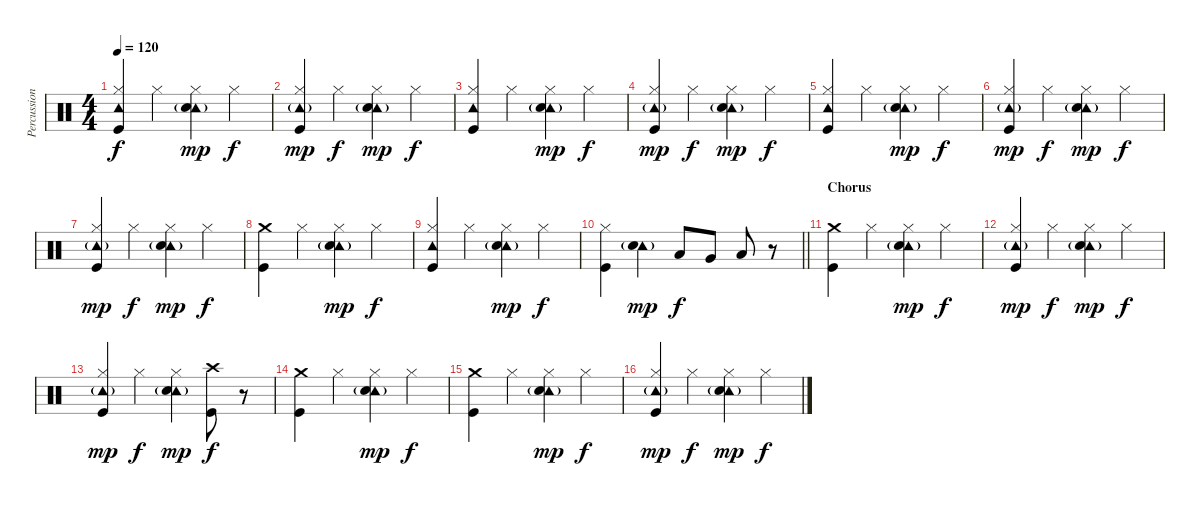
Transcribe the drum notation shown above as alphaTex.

\track ("Percussioni" "Percussion") {instrument percussion}
\staff {score}
\articulation defaults
\ts (4 4)
\tempo 120
\clef neutral
\ks c
("Tambourine (hit)" "Hi-Hat (closed)" "Kick (hit)").4{dy f} "Hi-Hat (closed)".4 ("Tambourine (hit)"{g} "Hi-Hat (closed)" "Snare (hit) 2").4{dy mp} "Hi-Hat (closed)".4{dy f} |
("Tambourine (hit)"{g} "Hi-Hat (closed)" "Kick (hit)").4{dy mp} "Hi-Hat (closed)".4{dy f} ("Tambourine (hit)"{g} "Hi-Hat (closed)" "Snare (hit) 2").4{dy mp} "Hi-Hat (closed)".4{dy f} |
("Tambourine (hit)" "Hi-Hat (closed)" "Kick (hit)").4 "Hi-Hat (closed)".4 ("Tambourine (hit)"{g} "Hi-Hat (closed)" "Snare (hit) 2").4{dy mp} "Hi-Hat (closed)".4{dy f} |
("Tambourine (hit)"{g} "Hi-Hat (closed)" "Kick (hit)").4{dy mp} "Hi-Hat (closed)".4{dy f} ("Tambourine (hit)"{g} "Hi-Hat (closed)" "Snare (hit) 2").4{dy mp} "Hi-Hat (closed)".4{dy f} |
("Tambourine (hit)" "Hi-Hat (closed)" "Kick (hit)").4 "Hi-Hat (closed)".4 ("Tambourine (hit)"{g} "Hi-Hat (closed)" "Snare (hit) 2").4{dy mp} "Hi-Hat (closed)".4{dy f} |
("Tambourine (hit)"{g} "Hi-Hat (closed)" "Kick (hit)").4{dy mp} "Hi-Hat (closed)".4{dy f} ("Tambourine (hit)"{g} "Hi-Hat (closed)" "Snare (hit) 2").4{dy mp} "Hi-Hat (closed)".4{dy f} |
("Tambourine (hit)"{g} "Hi-Hat (closed)" "Kick (hit)").4{dy mp} "Hi-Hat (closed)".4{dy f} ("Tambourine (hit)"{g} "Hi-Hat (closed)" "Snare (hit) 2").4{dy mp} "Hi-Hat (closed)".4{dy f} |
("Crash medium (hit)" "Kick (hit)").4 "Hi-Hat (closed)".4 ("Tambourine (hit)"{g} "Hi-Hat (closed)" "Snare (hit) 2").4{dy mp} "Hi-Hat (closed)".4{dy f} |
("Tambourine (hit)" "Hi-Hat (closed)" "Kick (hit)").4 "Hi-Hat (closed)".4 ("Tambourine (hit)"{g} "Hi-Hat (closed)" "Snare (hit) 2").4{dy mp} "Hi-Hat (closed)".4{dy f} |
\barLineRight lightlight
("Hi-Hat (closed)" "Kick (hit)").4 ("Tambourine (hit)"{g} "Snare (hit) 2").4{dy mp} "Low Tom (hit)".8{dy f} "Very Low Tom (hit)".8 "Low Floor Tom (hit)".8 r.8 |
\section ("" "Chorus")
("Crash medium (hit)" "Kick (hit)").4 "Hi-Hat (closed)".4 ("Tambourine (hit)"{g} "Hi-Hat (closed)" "Snare (hit) 2").4{dy mp} "Hi-Hat (closed)".4{dy f} |
("Tambourine (hit)"{g} "Hi-Hat (closed)" "Kick (hit)").4{dy mp} "Hi-Hat (closed)".4{dy f} ("Tambourine (hit)"{g} "Hi-Hat (closed)" "Snare (hit) 2").4{dy mp} "Hi-Hat (closed)".4{dy f} |
("Tambourine (hit)"{g} "Hi-Hat (closed)" "Kick (hit)").4{dy mp} "Hi-Hat (closed)".4{dy f} ("Tambourine (hit)"{g} "Hi-Hat (closed)" "Snare (hit) 2").4{dy mp} ("Crash high (hit)" "Kick (hit)").8{dy f} r.8 |
("Crash medium (hit)" "Kick (hit)").4 "Hi-Hat (closed)".4 ("Tambourine (hit)"{g} "Hi-Hat (closed)" "Snare (hit) 2").4{dy mp} "Hi-Hat (closed)".4{dy f} |
("Crash medium (hit)" "Kick (hit)").4 "Hi-Hat (closed)".4 ("Tambourine (hit)"{g} "Hi-Hat (closed)" "Snare (hit) 2").4{dy mp} "Hi-Hat (closed)".4{dy f} |
("Tambourine (hit)"{g} "Hi-Hat (closed)" "Kick (hit)").4{dy mp} "Hi-Hat (closed)".4{dy f} ("Tambourine (hit)"{g} "Hi-Hat (closed)" "Snare (hit) 2").4{dy mp} "Hi-Hat (closed)".4{dy f}
